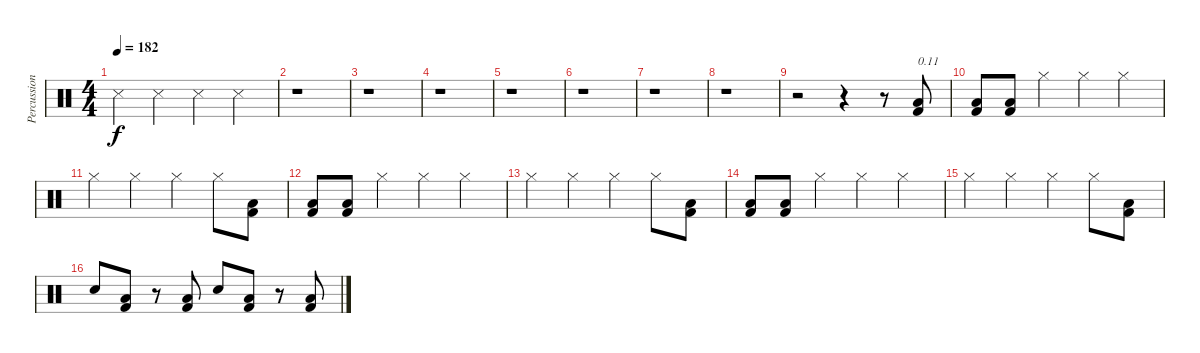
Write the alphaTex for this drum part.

\track ("Percussions" "Percussion") {instrument percussion}
\staff {score}
\articulation defaults
\ts (4 4)
\tempo 182
\clef neutral
\ks c "Metronome (hit)".4{dy f} "Metronome (hit)".4 "Metronome (hit)".4 "Metronome (hit)".4
|
r.1 |
r.1 |
r.1 |
r.1 |
r.1 |
r.1 |
r.1 |
r.2 r.4 r.8 ("Kick (hit) 2" "Low Floor Tom (hit)").8{txt "0.11"} |
("Kick (hit) 2" "Low Floor Tom (hit)").8 ("Kick (hit) 2" "Low Floor Tom (hit)").8 "Hi-Hat (closed)".4 "Hi-Hat (closed)".4 "Hi-Hat (closed)".4 |
"Hi-Hat (closed)".4 "Hi-Hat (closed)".4 "Hi-Hat (closed)".4 "Hi-Hat (closed)".8 ("Kick (hit) 2" "Low Floor Tom (hit)").8 |
("Kick (hit) 2" "Low Floor Tom (hit)").8 ("Kick (hit) 2" "Low Floor Tom (hit)").8 "Hi-Hat (closed)".4 "Hi-Hat (closed)".4 "Hi-Hat (closed)".4 |
"Hi-Hat (closed)".4 "Hi-Hat (closed)".4 "Hi-Hat (closed)".4 "Hi-Hat (closed)".8 ("Kick (hit) 2" "Low Floor Tom (hit)").8 |
("Kick (hit) 2" "Low Floor Tom (hit)").8 ("Kick (hit) 2" "Low Floor Tom (hit)").8 "Hi-Hat (closed)".4 "Hi-Hat (closed)".4 "Hi-Hat (closed)".4 |
"Hi-Hat (closed)".4 "Hi-Hat (closed)".4 "Hi-Hat (closed)".4 "Hi-Hat (closed)".8 ("Kick (hit) 2" "Low Floor Tom (hit)").8 |
"Electric Snare (hit)".8 ("Kick (hit) 2" "Low Floor Tom (hit)").8 r.8 ("Kick (hit) 2" "Low Floor Tom (hit)").8 "Electric Snare (hit)".8 ("Kick (hit) 2" "Low Floor Tom (hit)").8 r.8 ("Kick (hit) 2" "Low Floor Tom (hit)").8
